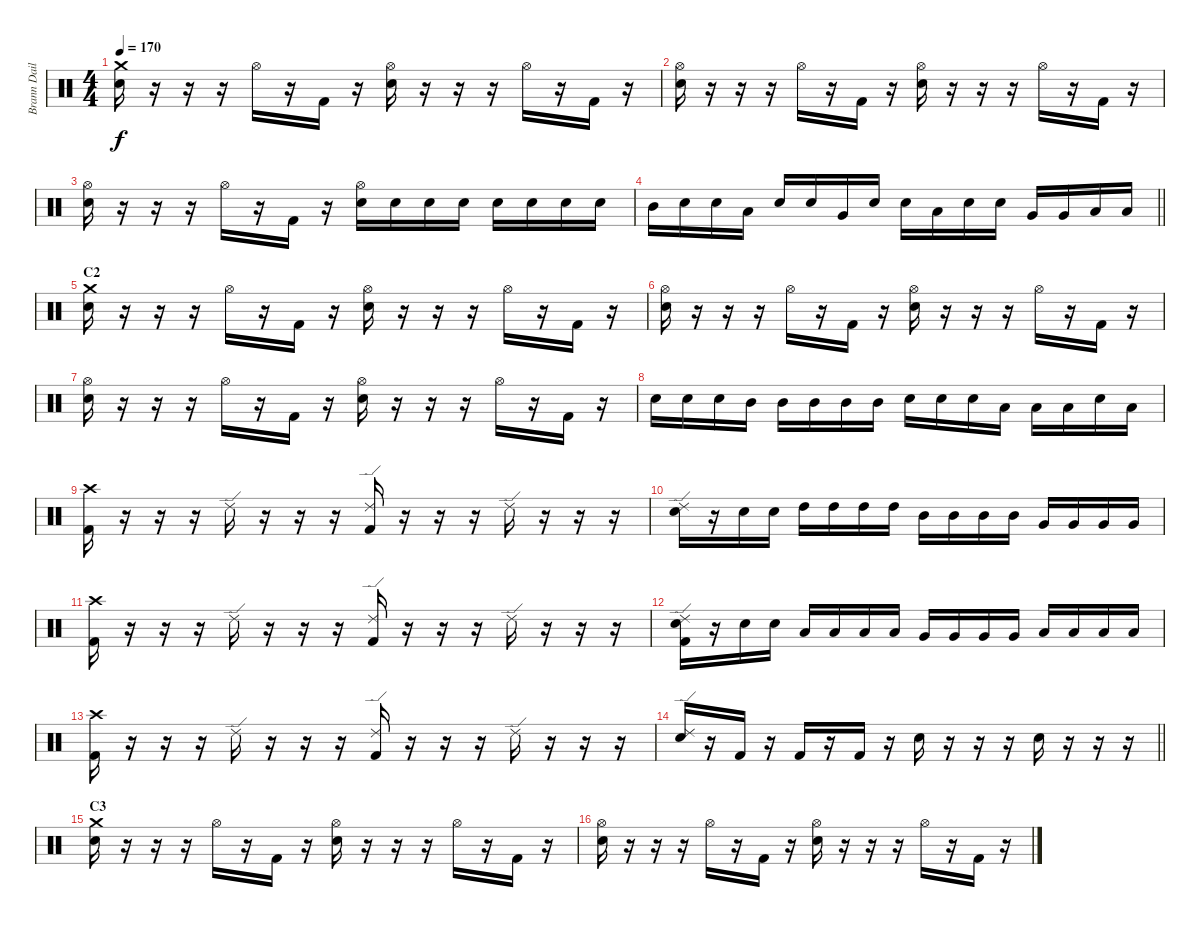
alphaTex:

\track ("Brann Dailor" "Brann Dail") {instrument percussion}
\staff {score}
\articulation defaults
\ts (4 4)
\tempo 170
\clef neutral
\ks c
("Crash medium (hit)" "Electric Snare (hit)").16{dy f} r.16 r.16 r.16 "Hi-Hat (open)".16 r.16 "Kick (hit) 2".16 r.16 ("Hi-Hat (open)" "Electric Snare (hit)").16 r.16 r.16 r.16 "Hi-Hat (open)".16 r.16 "Kick (hit) 2".16 r.16 |
("Hi-Hat (open)" "Electric Snare (hit)").16 r.16 r.16 r.16 "Hi-Hat (open)".16 r.16 "Kick (hit) 2".16 r.16 ("Hi-Hat (open)" "Electric Snare (hit)").16 r.16 r.16 r.16 "Hi-Hat (open)".16 r.16 "Kick (hit) 2".16 r.16 |
("Hi-Hat (open)" "Electric Snare (hit)").16 r.16 r.16 r.16 "Hi-Hat (open)".16 r.16 "Kick (hit) 2".16 r.16 ("Hi-Hat (open)" "Electric Snare (hit)").16 "Electric Snare (hit)".16 "Electric Snare (hit)".16 "Electric Snare (hit)".16 "Electric Snare (hit)".16 "Electric Snare (hit)".16 "Electric Snare (hit)".16 "Electric Snare (hit)".16 |
\barLineRight lightlight "Mid Tom (hit)".16 "Electric Snare (hit)".16 "Electric Snare (hit)".16 "Low Tom (hit)".16 "Electric Snare (hit)".16 "Electric Snare (hit)".16 "Very Low Tom (hit)".16 "Electric Snare (hit)".16 "Electric Snare (hit)".16 "Low Floor Tom (hit)".16 "Electric Snare (hit)".16 "Electric Snare (hit)".16 "Very Low Tom (hit)".16 "Very Low Tom (hit)".16 "Low Floor Tom (hit)".16 "Low Floor Tom (hit)".16
|
\section ("" "C2")
("Crash medium (hit)" "Electric Snare (hit)").16 r.16 r.16 r.16 "Hi-Hat (open)".16 r.16 "Kick (hit) 2".16 r.16 ("Hi-Hat (open)" "Electric Snare (hit)").16 r.16 r.16 r.16 "Hi-Hat (open)".16 r.16 "Kick (hit) 2".16 r.16 |
("Hi-Hat (open)" "Electric Snare (hit)").16 r.16 r.16 r.16 "Hi-Hat (open)".16 r.16 "Kick (hit) 2".16 r.16 ("Hi-Hat (open)" "Electric Snare (hit)").16 r.16 r.16 r.16 "Hi-Hat (open)".16 r.16 "Kick (hit) 2".16 r.16 |
("Hi-Hat (open)" "Electric Snare (hit)").16 r.16 r.16 r.16 "Hi-Hat (open)".16 r.16 "Kick (hit) 2".16 r.16 ("Hi-Hat (open)" "Electric Snare (hit)").16 r.16 r.16 r.16 "Hi-Hat (open)".16 r.16 "Kick (hit) 2".16 r.16 |
"Electric Snare (hit)".16 "Electric Snare (hit)".16 "Electric Snare (hit)".16 "Mid Tom (hit)".16 "Mid Tom (hit)".16 "Mid Tom (hit)".16 "Mid Tom (hit)".16 "Mid Tom (hit)".16 "Electric Snare (hit)".16 "Electric Snare (hit)".16 "Electric Snare (hit)".16 "Low Tom (hit)".16 "Low Tom (hit)".16 "Low Tom (hit)".16 "Electric Snare (hit)".16 "Low Tom (hit)".16 |
("Crash high (hit)" "Kick (hit) 2").16 r.16 r.16 r.16 "Ride (edge) 2".16 r.16 r.16 r.16 ("Ride (edge) 2" "Kick (hit) 2").16 r.16 r.16 r.16 "Ride (edge) 2".16 r.16 r.16 r.16 |
("Ride (edge) 2" "Electric Snare (hit)").16 r.16 "Electric Snare (hit)".16 "Electric Snare (hit)".16 "High Tom (hit)".16 "High Tom (hit)".16 "High Tom (hit)".16 "High Tom (hit)".16 "Mid Tom (hit)".16 "Mid Tom (hit)".16 "Mid Tom (hit)".16 "Mid Tom (hit)".16 "Very Low Tom (hit)".16 "Very Low Tom (hit)".16 "Very Low Tom (hit)".16 "Very Low Tom (hit)".16 |
("Crash high (hit)" "Kick (hit) 2").16 r.16 r.16 r.16 "Ride (edge) 2".16 r.16 r.16 r.16 ("Ride (edge) 2" "Kick (hit) 2").16 r.16 r.16 r.16 "Ride (edge) 2".16 r.16 r.16 r.16 |
("Ride (edge) 2" "Electric Snare (hit)" "Kick (hit) 2").16 r.16 "Electric Snare (hit)".16 "Electric Snare (hit)".16 "Low Tom (hit)".16 "Low Tom (hit)".16 "Low Tom (hit)".16 "Low Tom (hit)".16 "Very Low Tom (hit)".16 "Very Low Tom (hit)".16 "Very Low Tom (hit)".16 "Very Low Tom (hit)".16 "Low Floor Tom (hit)".16 "Low Floor Tom (hit)".16 "Low Floor Tom (hit)".16 "Low Floor Tom (hit)".16 |
("Crash high (hit)" "Kick (hit) 2").16 r.16 r.16 r.16 "Ride (edge) 2".16 r.16 r.16 r.16 ("Ride (edge) 2" "Kick (hit) 2").16 r.16 r.16 r.16 "Ride (edge) 2".16 r.16 r.16 r.16 |
\barLineRight lightlight
("Ride (edge) 2" "Electric Snare (hit)").16 r.16 "Kick (hit) 2".16 r.16 "Kick (hit) 2".16 r.16 "Kick (hit) 2".16 r.16 "Electric Snare (hit)".16 r.16 r.16 r.16 "Electric Snare (hit)".16 r.16 r.16 r.16 |
\section ("" "C3")
("Crash medium (hit)" "Electric Snare (hit)").16 r.16 r.16 r.16 "Hi-Hat (open)".16 r.16 "Kick (hit) 2".16 r.16 ("Hi-Hat (open)" "Electric Snare (hit)").16 r.16 r.16 r.16 "Hi-Hat (open)".16 r.16 "Kick (hit) 2".16 r.16 |
("Hi-Hat (open)" "Electric Snare (hit)").16 r.16 r.16 r.16 "Hi-Hat (open)".16 r.16 "Kick (hit) 2".16 r.16 ("Hi-Hat (open)" "Electric Snare (hit)").16 r.16 r.16 r.16 "Hi-Hat (open)".16 r.16 "Kick (hit) 2".16 r.16
